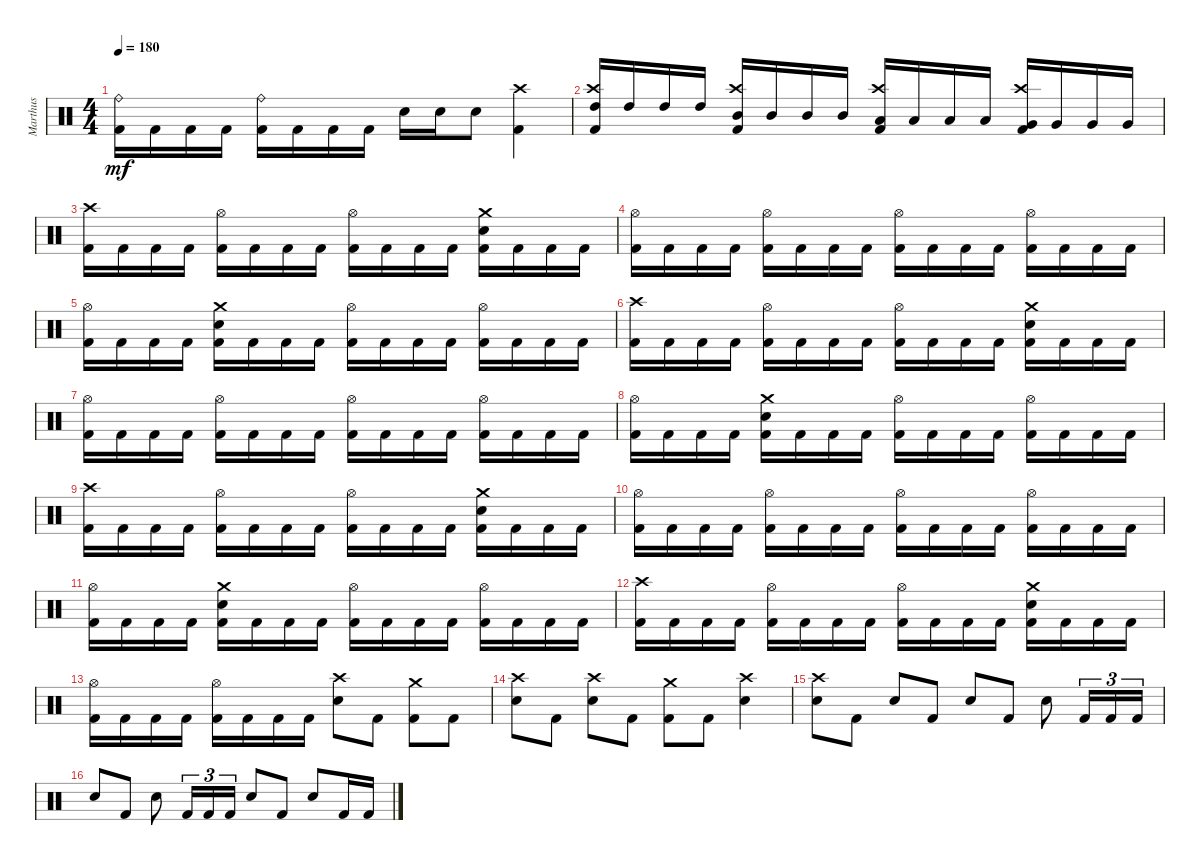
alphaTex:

\track ("Marthus" "Marthus") {instrument percussion}
\staff {score}
\articulation defaults
\ts (4 4)
\tempo 180
\clef neutral
\ks c
("Ride (bell)" "Kick (hit) 2").16{dy mf} "Kick (hit) 2".16 "Kick (hit) 2".16 "Kick (hit) 2".16 ("Ride (bell)" "Kick (hit) 2").16 "Kick (hit) 2".16 "Kick (hit) 2".16 "Kick (hit) 2".16 "Electric Snare (hit)".16 "Electric Snare (hit)".16 "Electric Snare (hit)".8 ("Crash high (hit)" "Kick (hit) 2").4 |
("Crash high (hit)" "High Tom (hit)" "Kick (hit) 2").16 "High Tom (hit)".16 "High Tom (hit)".16 "High Tom (hit)".16 ("Crash high (hit)" "Mid Tom (hit)" "Kick (hit) 2").16 "Mid Tom (hit)".16 "Mid Tom (hit)".16 "Mid Tom (hit)".16 ("Crash high (hit)" "Low Tom (hit)" "Kick (hit) 2").16 "Low Tom (hit)".16 "Low Tom (hit)".16 "Low Tom (hit)".16 ("Crash high (hit)" "Very Low Tom (hit)" "Kick (hit) 2").16 "Very Low Tom (hit)".16 "Very Low Tom (hit)".16 "Very Low Tom (hit)".16 |
("Crash high (hit)" "Kick (hit) 2").16 "Kick (hit) 2".16 "Kick (hit) 2".16 "Kick (hit) 2".16 ("Hi-Hat (open)" "Kick (hit) 2").16 "Kick (hit) 2".16 "Kick (hit) 2".16 "Kick (hit) 2".16 ("Hi-Hat (open)" "Kick (hit) 2").16 "Kick (hit) 2".16 "Kick (hit) 2".16 "Kick (hit) 2".16 ("Crash medium (hit)" "Electric Snare (hit)" "Kick (hit) 2").16 "Kick (hit) 2".16 "Kick (hit) 2".16 "Kick (hit) 2".16 |
("Hi-Hat (open)" "Kick (hit) 2").16 "Kick (hit) 2".16 "Kick (hit) 2".16 "Kick (hit) 2".16 ("Hi-Hat (open)" "Kick (hit) 2").16 "Kick (hit) 2".16 "Kick (hit) 2".16 "Kick (hit) 2".16 ("Hi-Hat (open)" "Kick (hit) 2").16 "Kick (hit) 2".16 "Kick (hit) 2".16 "Kick (hit) 2".16 ("Hi-Hat (open)" "Kick (hit) 2").16 "Kick (hit) 2".16 "Kick (hit) 2".16 "Kick (hit) 2".16 |
("Hi-Hat (open)" "Kick (hit) 2").16 "Kick (hit) 2".16 "Kick (hit) 2".16 "Kick (hit) 2".16 ("Crash medium (hit)" "Electric Snare (hit)" "Kick (hit) 2").16 "Kick (hit) 2".16 "Kick (hit) 2".16 "Kick (hit) 2".16 ("Hi-Hat (open)" "Kick (hit) 2").16 "Kick (hit) 2".16 "Kick (hit) 2".16 "Kick (hit) 2".16 ("Hi-Hat (open)" "Kick (hit) 2").16 "Kick (hit) 2".16 "Kick (hit) 2".16 "Kick (hit) 2".16 |
("Crash high (hit)" "Kick (hit) 2").16 "Kick (hit) 2".16 "Kick (hit) 2".16 "Kick (hit) 2".16 ("Hi-Hat (open)" "Kick (hit) 2").16 "Kick (hit) 2".16 "Kick (hit) 2".16 "Kick (hit) 2".16 ("Hi-Hat (open)" "Kick (hit) 2").16 "Kick (hit) 2".16 "Kick (hit) 2".16 "Kick (hit) 2".16 ("Crash medium (hit)" "Electric Snare (hit)" "Kick (hit) 2").16 "Kick (hit) 2".16 "Kick (hit) 2".16 "Kick (hit) 2".16 |
("Hi-Hat (open)" "Kick (hit) 2").16 "Kick (hit) 2".16 "Kick (hit) 2".16 "Kick (hit) 2".16 ("Hi-Hat (open)" "Kick (hit) 2").16 "Kick (hit) 2".16 "Kick (hit) 2".16 "Kick (hit) 2".16 ("Hi-Hat (open)" "Kick (hit) 2").16 "Kick (hit) 2".16 "Kick (hit) 2".16 "Kick (hit) 2".16 ("Hi-Hat (open)" "Kick (hit) 2").16 "Kick (hit) 2".16 "Kick (hit) 2".16 "Kick (hit) 2".16 |
("Hi-Hat (open)" "Kick (hit) 2").16 "Kick (hit) 2".16 "Kick (hit) 2".16 "Kick (hit) 2".16 ("Crash medium (hit)" "Electric Snare (hit)" "Kick (hit) 2").16 "Kick (hit) 2".16 "Kick (hit) 2".16 "Kick (hit) 2".16 ("Hi-Hat (open)" "Kick (hit) 2").16 "Kick (hit) 2".16 "Kick (hit) 2".16 "Kick (hit) 2".16 ("Hi-Hat (open)" "Kick (hit) 2").16 "Kick (hit) 2".16 "Kick (hit) 2".16 "Kick (hit) 2".16 |
("Crash high (hit)" "Kick (hit) 2").16 "Kick (hit) 2".16 "Kick (hit) 2".16 "Kick (hit) 2".16 ("Hi-Hat (open)" "Kick (hit) 2").16 "Kick (hit) 2".16 "Kick (hit) 2".16 "Kick (hit) 2".16 ("Hi-Hat (open)" "Kick (hit) 2").16 "Kick (hit) 2".16 "Kick (hit) 2".16 "Kick (hit) 2".16 ("Crash medium (hit)" "Electric Snare (hit)" "Kick (hit) 2").16 "Kick (hit) 2".16 "Kick (hit) 2".16 "Kick (hit) 2".16 |
("Hi-Hat (open)" "Kick (hit) 2").16 "Kick (hit) 2".16 "Kick (hit) 2".16 "Kick (hit) 2".16 ("Hi-Hat (open)" "Kick (hit) 2").16 "Kick (hit) 2".16 "Kick (hit) 2".16 "Kick (hit) 2".16 ("Hi-Hat (open)" "Kick (hit) 2").16 "Kick (hit) 2".16 "Kick (hit) 2".16 "Kick (hit) 2".16 ("Hi-Hat (open)" "Kick (hit) 2").16 "Kick (hit) 2".16 "Kick (hit) 2".16 "Kick (hit) 2".16 |
("Hi-Hat (open)" "Kick (hit) 2").16 "Kick (hit) 2".16 "Kick (hit) 2".16 "Kick (hit) 2".16 ("Crash medium (hit)" "Electric Snare (hit)" "Kick (hit) 2").16 "Kick (hit) 2".16 "Kick (hit) 2".16 "Kick (hit) 2".16 ("Hi-Hat (open)" "Kick (hit) 2").16 "Kick (hit) 2".16 "Kick (hit) 2".16 "Kick (hit) 2".16 ("Hi-Hat (open)" "Kick (hit) 2").16 "Kick (hit) 2".16 "Kick (hit) 2".16 "Kick (hit) 2".16 |
("Crash high (hit)" "Kick (hit) 2").16 "Kick (hit) 2".16 "Kick (hit) 2".16 "Kick (hit) 2".16 ("Hi-Hat (open)" "Kick (hit) 2").16 "Kick (hit) 2".16 "Kick (hit) 2".16 "Kick (hit) 2".16 ("Hi-Hat (open)" "Kick (hit) 2").16 "Kick (hit) 2".16 "Kick (hit) 2".16 "Kick (hit) 2".16 ("Crash medium (hit)" "Electric Snare (hit)" "Kick (hit) 2").16 "Kick (hit) 2".16 "Kick (hit) 2".16 "Kick (hit) 2".16 |
("Hi-Hat (open)" "Kick (hit) 2").16 "Kick (hit) 2".16 "Kick (hit) 2".16 "Kick (hit) 2".16 ("Hi-Hat (open)" "Kick (hit) 2").16 "Kick (hit) 2".16 "Kick (hit) 2".16 "Kick (hit) 2".16 ("Crash high (hit)" "Electric Snare (hit)").8 "Kick (hit) 2".8 ("Crash medium (hit)" "Kick (hit) 2").8 "Kick (hit) 2".8 |
("Crash high (hit)" "Electric Snare (hit)").8 "Kick (hit) 2".8 ("Crash high (hit)" "Electric Snare (hit)").8 "Kick (hit) 2".8 ("Crash medium (hit)" "Kick (hit) 2").8 "Kick (hit) 2".8 ("Crash high (hit)" "Electric Snare (hit)").4 |
("Crash high (hit)" "Electric Snare (hit)").8 "Kick (hit) 2".8 "Electric Snare (hit)".8 "Kick (hit) 2".8 "Electric Snare (hit)".8 "Kick (hit) 2".8 "Electric Snare (hit)".8 "Kick (hit) 2".16{tu (3 2)} "Kick (hit) 2".16{tu (3 2)} "Kick (hit) 2".16{tu (3 2)} |
"Electric Snare (hit)".8 "Kick (hit) 2".8 "Electric Snare (hit)".8 "Kick (hit) 2".16{tu (3 2)} "Kick (hit) 2".16{tu (3 2)} "Kick (hit) 2".16{tu (3 2)} "Electric Snare (hit)".8 "Kick (hit) 2".8 "Electric Snare (hit)".8 "Kick (hit) 2".16 "Kick (hit) 2".16
